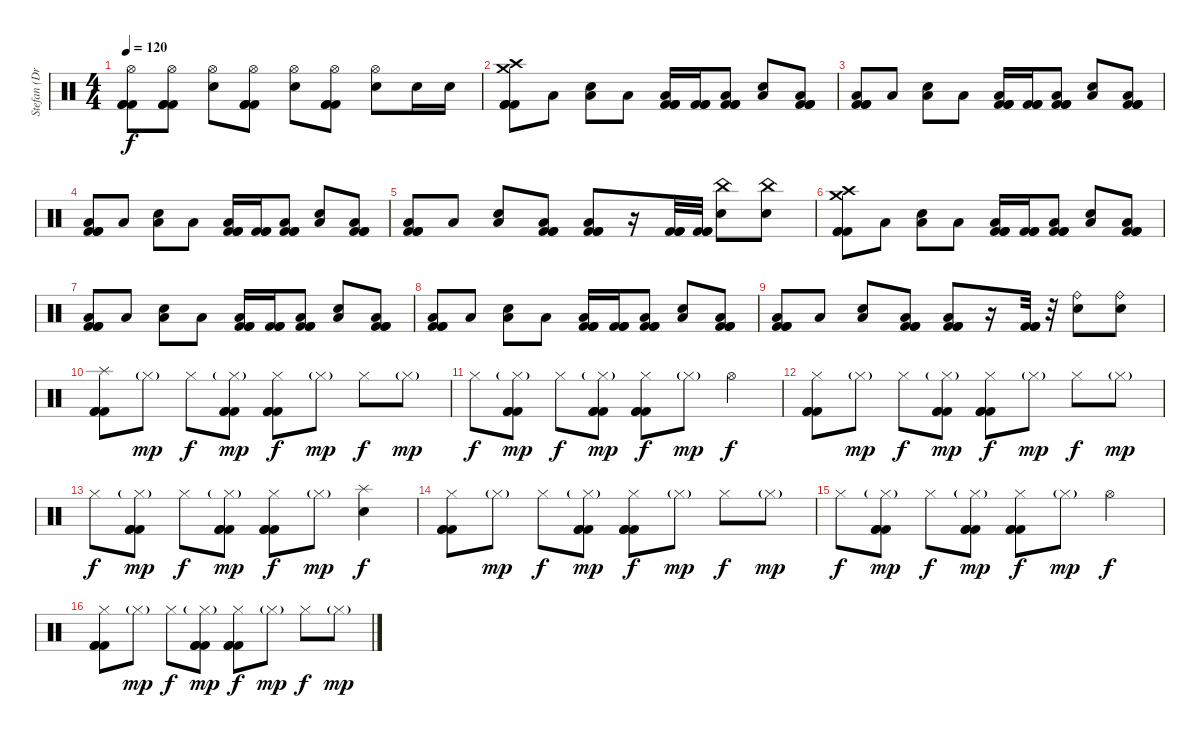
\track ("Stefan (Drums)" "Stefan (Dr") {instrument percussion}
\staff {score}
\articulation defaults
\ts (4 4)
\tempo 120
\clef neutral
\ks c
("Hi-Hat (open)" "Kick (hit) 2" "Kick (hit) 2" "Kick (hit) 2").8{dy f} ("Hi-Hat (open)" "Kick (hit) 2" "Kick (hit) 2" "Kick (hit) 2").8 ("Hi-Hat (open)" "Snare (hit) 2").8 ("Hi-Hat (open)" "Kick (hit) 2" "Kick (hit) 2" "Kick (hit) 2").8 ("Hi-Hat (open)" "Snare (hit) 2").8 ("Hi-Hat (open)" "Kick (hit) 2" "Kick (hit) 2" "Kick (hit) 2").8 ("Hi-Hat (open)" "Snare (hit) 2").8 "Snare (hit) 2".16 "Snare (hit) 2".16 |
("Crash high (hit)" "Crash medium (hit)" "Kick (hit) 2" "Kick (hit) 2" "Kick (hit) 2").8 "Low Tom (hit)".8 ("Snare (hit) 2" "Low Tom (hit)").8 "Low Tom (hit)".8 ("Low Tom (hit)" "Kick (hit) 2" "Kick (hit) 2" "Kick (hit) 2").16 ("Kick (hit) 2" "Kick (hit) 2" "Kick (hit) 2").16 ("Low Tom (hit)" "Kick (hit) 2" "Kick (hit) 2" "Kick (hit) 2").8 ("Snare (hit) 2" "Low Tom (hit)").8 ("Low Tom (hit)" "Kick (hit) 2" "Kick (hit) 2" "Kick (hit) 2").8 |
("Low Tom (hit)" "Kick (hit) 2" "Kick (hit) 2" "Kick (hit) 2").8 "Low Tom (hit)".8 ("Snare (hit) 2" "Low Tom (hit)").8 "Low Tom (hit)".8 ("Low Tom (hit)" "Kick (hit) 2" "Kick (hit) 2" "Kick (hit) 2").16 ("Kick (hit) 2" "Kick (hit) 2" "Kick (hit) 2").16 ("Low Tom (hit)" "Kick (hit) 2" "Kick (hit) 2" "Kick (hit) 2").8 ("Snare (hit) 2" "Low Tom (hit)").8 ("Low Tom (hit)" "Kick (hit) 2" "Kick (hit) 2" "Kick (hit) 2").8 |
("Low Tom (hit)" "Kick (hit) 2" "Kick (hit) 2" "Kick (hit) 2").8 "Low Tom (hit)".8 ("Snare (hit) 2" "Low Tom (hit)").8 "Low Tom (hit)".8 ("Low Tom (hit)" "Kick (hit) 2" "Kick (hit) 2" "Kick (hit) 2").16 ("Kick (hit) 2" "Kick (hit) 2" "Kick (hit) 2").16 ("Low Tom (hit)" "Kick (hit) 2" "Kick (hit) 2" "Kick (hit) 2").8 ("Snare (hit) 2" "Low Tom (hit)").8 ("Low Tom (hit)" "Kick (hit) 2" "Kick (hit) 2" "Kick (hit) 2").8 |
("Low Tom (hit)" "Kick (hit) 2" "Kick (hit) 2" "Kick (hit) 2").8 "Low Tom (hit)".8 ("Snare (hit) 2" "Low Tom (hit)").8 ("Low Tom (hit)" "Kick (hit) 2" "Kick (hit) 2" "Kick (hit) 2").8 ("Low Tom (hit)" "Kick (hit) 2" "Kick (hit) 2" "Kick (hit) 2").8 r.16 ("Kick (hit) 2" "Kick (hit) 2" "Kick (hit) 2").32 ("Kick (hit) 2" "Kick (hit) 2" "Kick (hit) 2").32 ("China (hit)" "Snare (hit) 2").8 ("China (hit)" "Snare (hit) 2").8 |
("Crash high (hit)" "Crash medium (hit)" "Kick (hit) 2" "Kick (hit) 2" "Kick (hit) 2").8 "Low Tom (hit)".8 ("Snare (hit) 2" "Low Tom (hit)").8 "Low Tom (hit)".8 ("Low Tom (hit)" "Kick (hit) 2" "Kick (hit) 2" "Kick (hit) 2").16 ("Kick (hit) 2" "Kick (hit) 2" "Kick (hit) 2").16 ("Low Tom (hit)" "Kick (hit) 2" "Kick (hit) 2" "Kick (hit) 2").8 ("Snare (hit) 2" "Low Tom (hit)").8 ("Low Tom (hit)" "Kick (hit) 2" "Kick (hit) 2" "Kick (hit) 2").8 |
("Low Tom (hit)" "Kick (hit) 2" "Kick (hit) 2" "Kick (hit) 2").8 "Low Tom (hit)".8 ("Snare (hit) 2" "Low Tom (hit)").8 "Low Tom (hit)".8 ("Low Tom (hit)" "Kick (hit) 2" "Kick (hit) 2" "Kick (hit) 2").16 ("Kick (hit) 2" "Kick (hit) 2" "Kick (hit) 2").16 ("Low Tom (hit)" "Kick (hit) 2" "Kick (hit) 2" "Kick (hit) 2").8 ("Snare (hit) 2" "Low Tom (hit)").8 ("Low Tom (hit)" "Kick (hit) 2" "Kick (hit) 2" "Kick (hit) 2").8 |
("Low Tom (hit)" "Kick (hit) 2" "Kick (hit) 2" "Kick (hit) 2").8 "Low Tom (hit)".8 ("Snare (hit) 2" "Low Tom (hit)").8 "Low Tom (hit)".8 ("Low Tom (hit)" "Kick (hit) 2" "Kick (hit) 2" "Kick (hit) 2").16 ("Kick (hit) 2" "Kick (hit) 2" "Kick (hit) 2").16 ("Low Tom (hit)" "Kick (hit) 2" "Kick (hit) 2" "Kick (hit) 2").8 ("Snare (hit) 2" "Low Tom (hit)").8 ("Low Tom (hit)" "Kick (hit) 2" "Kick (hit) 2" "Kick (hit) 2").8 |
("Low Tom (hit)" "Kick (hit) 2" "Kick (hit) 2" "Kick (hit) 2").8 "Low Tom (hit)".8 ("Snare (hit) 2" "Low Tom (hit)").8 ("Low Tom (hit)" "Kick (hit) 2" "Kick (hit) 2" "Kick (hit) 2").8 ("Low Tom (hit)" "Kick (hit) 2" "Kick (hit) 2" "Kick (hit) 2").8 r.16 ("Kick (hit) 2" "Kick (hit) 2" "Kick (hit) 2").32 r.32 ("Ride (bell)" "Snare (hit) 2").8 ("Ride (bell)" "Snare (hit) 2").8 |
("Splash (hit)" "Kick (hit) 2" "Kick (hit) 2" "Kick (hit) 2").8 "Hi-Hat (closed)"{g}.8{dy mp} "Hi-Hat (closed)".8{dy f} ("Hi-Hat (closed)"{g} "Kick (hit) 2" "Kick (hit) 2" "Kick (hit) 2").8{dy mp} ("Hi-Hat (closed)" "Kick (hit) 2" "Kick (hit) 2" "Kick (hit) 2").8{dy f} "Hi-Hat (closed)"{g}.8{dy mp} "Hi-Hat (closed)".8{dy f} "Hi-Hat (closed)"{g}.8{dy mp} |
"Hi-Hat (closed)".8{dy f} ("Hi-Hat (closed)"{g} "Kick (hit) 2" "Kick (hit) 2" "Kick (hit) 2").8{dy mp} "Hi-Hat (closed)".8{dy f} ("Hi-Hat (closed)"{g} "Kick (hit) 2" "Kick (hit) 2" "Kick (hit) 2").8{dy mp} ("Hi-Hat (closed)" "Kick (hit) 2" "Kick (hit) 2" "Kick (hit) 2").8{dy f} "Hi-Hat (closed)"{g}.8{dy mp} "Hi-Hat (open)".4{dy f} |
("Hi-Hat (closed)" "Kick (hit) 2" "Kick (hit) 2" "Kick (hit) 2").8 "Hi-Hat (closed)"{g}.8{dy mp} "Hi-Hat (closed)".8{dy f} ("Hi-Hat (closed)"{g} "Kick (hit) 2" "Kick (hit) 2" "Kick (hit) 2").8{dy mp} ("Hi-Hat (closed)" "Kick (hit) 2" "Kick (hit) 2" "Kick (hit) 2").8{dy f} "Hi-Hat (closed)"{g}.8{dy mp} "Hi-Hat (closed)".8{dy f} "Hi-Hat (closed)"{g}.8{dy mp} |
"Hi-Hat (closed)".8{dy f} ("Hi-Hat (closed)"{g} "Kick (hit) 2" "Kick (hit) 2" "Kick (hit) 2").8{dy mp} "Hi-Hat (closed)".8{dy f} ("Hi-Hat (closed)"{g} "Kick (hit) 2" "Kick (hit) 2" "Kick (hit) 2").8{dy mp} ("Hi-Hat (closed)" "Kick (hit) 2" "Kick (hit) 2" "Kick (hit) 2").8{dy f} "Hi-Hat (closed)"{g}.8{dy mp} ("Splash (hit)" "Electric Snare (hit)").4{dy f} |
("Hi-Hat (closed)" "Kick (hit) 2" "Kick (hit) 2" "Kick (hit) 2").8 "Hi-Hat (closed)"{g}.8{dy mp} "Hi-Hat (closed)".8{dy f} ("Hi-Hat (closed)"{g} "Kick (hit) 2" "Kick (hit) 2" "Kick (hit) 2").8{dy mp} ("Hi-Hat (closed)" "Kick (hit) 2" "Kick (hit) 2" "Kick (hit) 2").8{dy f} "Hi-Hat (closed)"{g}.8{dy mp} "Hi-Hat (closed)".8{dy f} "Hi-Hat (closed)"{g}.8{dy mp} |
"Hi-Hat (closed)".8{dy f} ("Hi-Hat (closed)"{g} "Kick (hit) 2" "Kick (hit) 2" "Kick (hit) 2").8{dy mp} "Hi-Hat (closed)".8{dy f} ("Hi-Hat (closed)"{g} "Kick (hit) 2" "Kick (hit) 2" "Kick (hit) 2").8{dy mp} ("Hi-Hat (closed)" "Kick (hit) 2" "Kick (hit) 2" "Kick (hit) 2").8{dy f} "Hi-Hat (closed)"{g}.8{dy mp} "Hi-Hat (open)".4{dy f} |
("Hi-Hat (closed)" "Kick (hit) 2" "Kick (hit) 2" "Kick (hit) 2").8 "Hi-Hat (closed)"{g}.8{dy mp} "Hi-Hat (closed)".8{dy f} ("Hi-Hat (closed)"{g} "Kick (hit) 2" "Kick (hit) 2" "Kick (hit) 2").8{dy mp} ("Hi-Hat (closed)" "Kick (hit) 2" "Kick (hit) 2" "Kick (hit) 2").8{dy f} "Hi-Hat (closed)"{g}.8{dy mp} "Hi-Hat (closed)".8{dy f} "Hi-Hat (closed)"{g}.8{dy mp}
